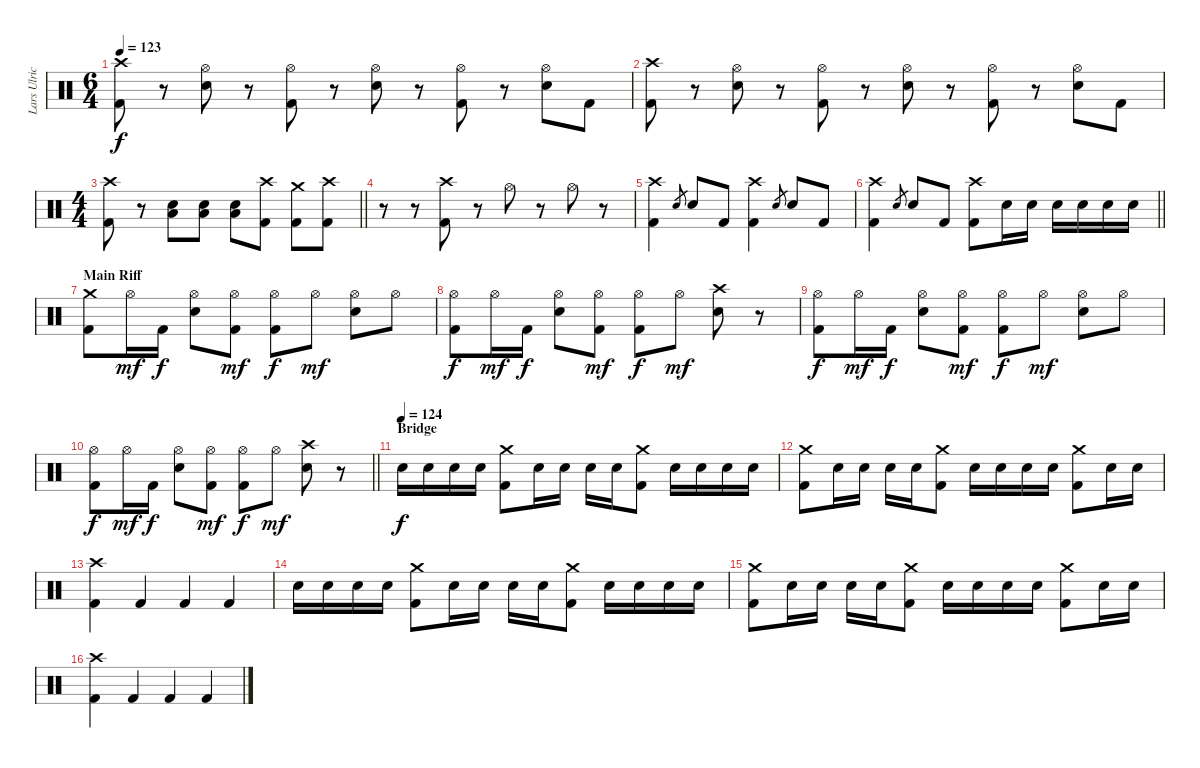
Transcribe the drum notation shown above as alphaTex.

\track ("Lars Ulrich" "Lars Ulric") {instrument percussion}
\staff {score}
\articulation defaults
\ts (6 4)
\tempo 123
\clef neutral
\ks c
("Crash high (hit)" "Kick (hit) 2").8{dy f} r.8 ("Hi-Hat (open)" "Snare (hit) 2").8 r.8 ("Hi-Hat (open)" "Kick (hit) 2").8 r.8 ("Hi-Hat (open)" "Snare (hit) 2").8 r.8 ("Hi-Hat (open)" "Kick (hit) 2").8 r.8 ("Hi-Hat (open)" "Snare (hit) 2").8 "Kick (hit) 2".8 |
("Crash high (hit)" "Kick (hit) 2").8 r.8 ("Hi-Hat (open)" "Snare (hit) 2").8 r.8 ("Hi-Hat (open)" "Kick (hit) 2").8 r.8 ("Hi-Hat (open)" "Snare (hit) 2").8 r.8 ("Hi-Hat (open)" "Kick (hit) 2").8 r.8 ("Hi-Hat (open)" "Snare (hit) 2").8 "Kick (hit) 2".8 |
\ts (4 4)
\barLineRight lightlight
("Crash high (hit)" "Kick (hit) 2").8 r.8 ("Low Floor Tom (hit)" "Snare (hit) 2").8 ("Low Floor Tom (hit)" "Snare (hit) 2").8 ("Low Floor Tom (hit)" "Snare (hit) 2").8 ("Crash high (hit)" "Kick (hit) 2").8 ("Crash medium (hit)" "Kick (hit) 2").8 ("Crash high (hit)" "Kick (hit) 2").8 |
r.8 r.8 ("Crash high (hit)" "Kick (hit) 2").8 r.8 "Hi-Hat (open)".8 r.8 "Hi-Hat (open)".8 r.8 |
("Crash high (hit)" "Kick (hit) 2").4 "Snare (hit) 2".8{gr} "Snare (hit) 2".8 "Kick (hit) 2".8 ("Crash high (hit)" "Kick (hit) 2").4 "Snare (hit) 2".8{gr} "Snare (hit) 2".8 "Kick (hit) 2".8 |
\barLineRight lightlight
("Crash high (hit)" "Kick (hit) 2").4 "Snare (hit) 2".8{gr} "Snare (hit) 2".8 "Kick (hit) 2".8 ("Crash high (hit)" "Kick (hit) 2").8 "Snare (hit) 2".16 "Snare (hit) 2".16 "Snare (hit) 2".16 "Snare (hit) 2".16 "Snare (hit) 2".16 "Snare (hit) 2".16 |
\section ("" "Main Riff")
("Crash medium (hit)" "Kick (hit) 2").8 "Hi-Hat (open)".16{dy mf} "Kick (hit) 2".16{dy f} ("Hi-Hat (open)" "Snare (hit) 2").8 ("Hi-Hat (open)" "Kick (hit) 2").8{dy mf} ("Hi-Hat (open)" "Kick (hit) 2").8{dy f} "Hi-Hat (open)".8{dy mf} ("Hi-Hat (open)" "Snare (hit) 2").8 "Hi-Hat (open)".8 |
("Hi-Hat (open)" "Kick (hit) 2").8{dy f} "Hi-Hat (open)".16{dy mf} "Kick (hit) 2".16{dy f} ("Hi-Hat (open)" "Snare (hit) 2").8 ("Hi-Hat (open)" "Kick (hit) 2").8{dy mf} ("Hi-Hat (open)" "Kick (hit) 2").8{dy f} "Hi-Hat (open)".8{dy mf} ("Crash high (hit)" "Snare (hit) 2").8 r.8 |
("Hi-Hat (open)" "Kick (hit) 2").8{dy f} "Hi-Hat (open)".16{dy mf} "Kick (hit) 2".16{dy f} ("Hi-Hat (open)" "Snare (hit) 2").8 ("Hi-Hat (open)" "Kick (hit) 2").8{dy mf} ("Hi-Hat (open)" "Kick (hit) 2").8{dy f} "Hi-Hat (open)".8{dy mf} ("Hi-Hat (open)" "Snare (hit) 2").8 "Hi-Hat (open)".8 |
\barLineRight lightlight
("Hi-Hat (open)" "Kick (hit) 2").8{dy f} "Hi-Hat (open)".16{dy mf} "Kick (hit) 2".16{dy f} ("Hi-Hat (open)" "Snare (hit) 2").8 ("Hi-Hat (open)" "Kick (hit) 2").8{dy mf} ("Hi-Hat (open)" "Kick (hit) 2").8{dy f} "Hi-Hat (open)".8{dy mf} ("Crash high (hit)" "Snare (hit) 2").8 r.8 |
\section ("" "Bridge")
\tempo (124)
"Snare (hit) 2".16{dy f} "Snare (hit) 2".16 "Snare (hit) 2".16 "Snare (hit) 2".16 ("Crash medium (hit)" "Kick (hit) 2").8 "Snare (hit) 2".16 "Snare (hit) 2".16 "Snare (hit) 2".16 "Snare (hit) 2".16 ("Crash medium (hit)" "Kick (hit) 2").8 "Snare (hit) 2".16 "Snare (hit) 2".16 "Snare (hit) 2".16 "Snare (hit) 2".16 |
("Crash medium (hit)" "Kick (hit) 2").8 "Snare (hit) 2".16 "Snare (hit) 2".16 "Snare (hit) 2".16 "Snare (hit) 2".16 ("Crash medium (hit)" "Kick (hit) 2").8 "Snare (hit) 2".16 "Snare (hit) 2".16 "Snare (hit) 2".16 "Snare (hit) 2".16 ("Crash medium (hit)" "Kick (hit) 2").8 "Snare (hit) 2".16 "Snare (hit) 2".16 |
("Crash high (hit)" "Kick (hit) 2").4 "Kick (hit) 2".4 "Kick (hit) 2".4 "Kick (hit) 2".4 |
"Snare (hit) 2".16 "Snare (hit) 2".16 "Snare (hit) 2".16 "Snare (hit) 2".16 ("Crash medium (hit)" "Kick (hit) 2").8 "Snare (hit) 2".16 "Snare (hit) 2".16 "Snare (hit) 2".16 "Snare (hit) 2".16 ("Crash medium (hit)" "Kick (hit) 2").8 "Snare (hit) 2".16 "Snare (hit) 2".16 "Snare (hit) 2".16 "Snare (hit) 2".16 |
("Crash medium (hit)" "Kick (hit) 2").8 "Snare (hit) 2".16 "Snare (hit) 2".16 "Snare (hit) 2".16 "Snare (hit) 2".16 ("Crash medium (hit)" "Kick (hit) 2").8 "Snare (hit) 2".16 "Snare (hit) 2".16 "Snare (hit) 2".16 "Snare (hit) 2".16 ("Crash medium (hit)" "Kick (hit) 2").8 "Snare (hit) 2".16 "Snare (hit) 2".16 |
("Crash high (hit)" "Kick (hit) 2").4 "Kick (hit) 2".4 "Kick (hit) 2".4 "Kick (hit) 2".4
